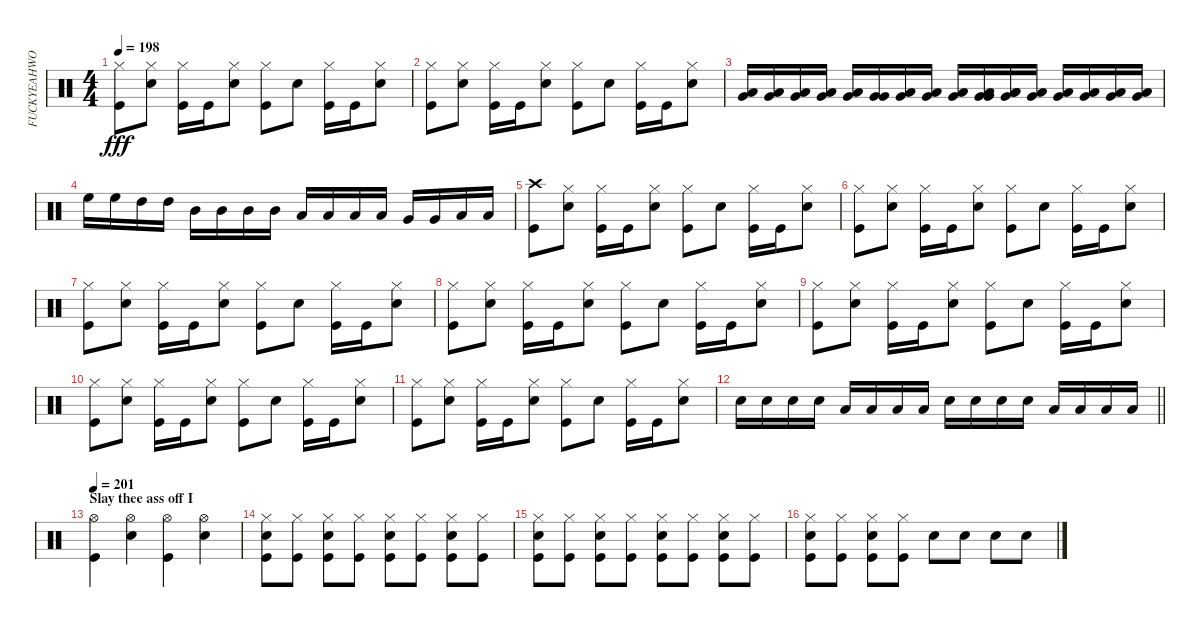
\track ("FUCKYEAHWOOTDAVEMACKINTOSH(Percussion)" "FUCKYEAHWO") {instrument percussion}
\staff {score}
\articulation defaults
\ts (4 4)
\tempo 198
\clef neutral
\ks c
("Kick (hit)" "Hi-Hat (closed)").8{dy fff} ("Snare (hit) 2" "Hi-Hat (closed)").8 ("Kick (hit)" "Hi-Hat (closed)").16 "Kick (hit)".16 ("Snare (hit) 2" "Hi-Hat (closed)").8 ("Kick (hit)" "Hi-Hat (closed)").8 "Snare (hit) 2".8 ("Kick (hit)" "Hi-Hat (closed)").16 "Kick (hit)".16 ("Snare (hit) 2" "Hi-Hat (closed)").8 |
("Kick (hit)" "Hi-Hat (closed)").8 ("Snare (hit) 2" "Hi-Hat (closed)").8 ("Kick (hit)" "Hi-Hat (closed)").16 "Kick (hit)".16 ("Snare (hit) 2" "Hi-Hat (closed)").8 ("Kick (hit)" "Hi-Hat (closed)").8 "Snare (hit) 2".8 ("Kick (hit)" "Hi-Hat (closed)").16 "Kick (hit)".16 ("Snare (hit) 2" "Hi-Hat (closed)").8 |
("Very Low Tom (hit)" "Low Tom (hit)").16 ("Very Low Tom (hit)" "Low Tom (hit)").16 ("Low Floor Tom (hit)" "Very Low Tom (hit)").16 ("Low Floor Tom (hit)" "Very Low Tom (hit)").16 ("Low Tom (hit)" "Very Low Tom (hit)").16 ("Very Low Tom (hit)" "Very Low Tom (hit)").16 ("Low Floor Tom (hit)" "Very Low Tom (hit)").16 ("Low Floor Tom (hit)" "Very Low Tom (hit)").16 ("Very Low Tom (hit)" "Low Tom (hit)").16 ("Very Low Tom (hit)" "Very Low Tom (hit)" "Low Tom (hit)").16 ("Very Low Tom (hit)" "Low Floor Tom (hit)" "Low Tom (hit)").16 ("Low Floor Tom (hit)" "Very Low Tom (hit)").16 ("Low Tom (hit)" "Very Low Tom (hit)").16 ("Low Tom (hit)" "Very Low Tom (hit)").16 ("Very Low Tom (hit)" "Low Floor Tom (hit)").16 ("Very Low Tom (hit)" "Low Floor Tom (hit)").16 |
"High Floor Tom (hit)".16 "High Floor Tom (hit)".16 "High Tom (hit)".16 "High Tom (hit)".16 "Mid Tom (hit)".16 "Mid Tom (hit)".16 "Mid Tom (hit)".16 "Mid Tom (hit)".16 "Low Tom (hit)".16 "Low Tom (hit)".16 "Low Tom (hit)".16 "Low Tom (hit)".16 "Very Low Tom (hit)".16 "Very Low Tom (hit)".16 "Low Floor Tom (hit)".16 "Low Floor Tom (hit)".16 |
("Kick (hit)" "Crash high (hit)").8 ("Snare (hit) 2" "Hi-Hat (closed)").8 ("Kick (hit)" "Hi-Hat (closed)").16 "Kick (hit)".16 ("Snare (hit) 2" "Hi-Hat (closed)").8 ("Kick (hit)" "Hi-Hat (closed)").8 "Snare (hit) 2".8 ("Kick (hit)" "Hi-Hat (closed)").16 "Kick (hit)".16 ("Snare (hit) 2" "Hi-Hat (closed)").8 |
("Kick (hit)" "Hi-Hat (closed)").8 ("Snare (hit) 2" "Hi-Hat (closed)").8 ("Kick (hit)" "Hi-Hat (closed)").16 "Kick (hit)".16 ("Snare (hit) 2" "Hi-Hat (closed)").8 ("Kick (hit)" "Hi-Hat (closed)").8 "Snare (hit) 2".8 ("Kick (hit)" "Hi-Hat (closed)").16 "Kick (hit)".16 ("Snare (hit) 2" "Hi-Hat (closed)").8 |
("Kick (hit)" "Hi-Hat (closed)").8 ("Snare (hit) 2" "Hi-Hat (closed)").8 ("Kick (hit)" "Hi-Hat (closed)").16 "Kick (hit)".16 ("Snare (hit) 2" "Hi-Hat (closed)").8 ("Kick (hit)" "Hi-Hat (closed)").8 "Snare (hit) 2".8 ("Kick (hit)" "Hi-Hat (closed)").16 "Kick (hit)".16 ("Snare (hit) 2" "Hi-Hat (closed)").8 |
("Kick (hit)" "Hi-Hat (closed)").8 ("Snare (hit) 2" "Hi-Hat (closed)").8 ("Kick (hit)" "Hi-Hat (closed)").16 "Kick (hit)".16 ("Snare (hit) 2" "Hi-Hat (closed)").8 ("Kick (hit)" "Hi-Hat (closed)").8 "Snare (hit) 2".8 ("Kick (hit)" "Hi-Hat (closed)").16 "Kick (hit)".16 ("Snare (hit) 2" "Hi-Hat (closed)").8 |
("Kick (hit)" "Hi-Hat (closed)").8 ("Snare (hit) 2" "Hi-Hat (closed)").8 ("Kick (hit)" "Hi-Hat (closed)").16 "Kick (hit)".16 ("Snare (hit) 2" "Hi-Hat (closed)").8 ("Kick (hit)" "Hi-Hat (closed)").8 "Snare (hit) 2".8 ("Kick (hit)" "Hi-Hat (closed)").16 "Kick (hit)".16 ("Snare (hit) 2" "Hi-Hat (closed)").8 |
("Kick (hit)" "Hi-Hat (closed)").8 ("Snare (hit) 2" "Hi-Hat (closed)").8 ("Kick (hit)" "Hi-Hat (closed)").16 "Kick (hit)".16 ("Snare (hit) 2" "Hi-Hat (closed)").8 ("Kick (hit)" "Hi-Hat (closed)").8 "Snare (hit) 2".8 ("Kick (hit)" "Hi-Hat (closed)").16 "Kick (hit)".16 ("Snare (hit) 2" "Hi-Hat (closed)").8 |
("Kick (hit)" "Hi-Hat (closed)").8 ("Snare (hit) 2" "Hi-Hat (closed)").8 ("Kick (hit)" "Hi-Hat (closed)").16 "Kick (hit)".16 ("Snare (hit) 2" "Hi-Hat (closed)").8 ("Kick (hit)" "Hi-Hat (closed)").8 "Snare (hit) 2".8 ("Kick (hit)" "Hi-Hat (closed)").16 "Kick (hit)".16 ("Snare (hit) 2" "Hi-Hat (closed)").8 |
\barLineRight lightlight "Snare (hit) 2".16 "Snare (hit) 2".16 "Snare (hit) 2".16 "Snare (hit) 2".16 "Low Tom (hit)".16 "Low Tom (hit)".16 "Low Tom (hit)".16 "Low Tom (hit)".16 "Snare (hit) 2".16 "Snare (hit) 2".16 "Snare (hit) 2".16 "Snare (hit) 2".16 "Low Tom (hit)".16 "Low Tom (hit)".16 "Low Tom (hit)".16 "Low Tom (hit)".16
|
\section ("" "Slay thee ass off I")
\tempo 201
("Kick (hit)" "Hi-Hat (open)").4 ("Snare (hit) 2" "Hi-Hat (open)").4 ("Kick (hit)" "Hi-Hat (open)").4 ("Snare (hit) 2" "Hi-Hat (open)").4 |
("Kick (hit)" "Snare (hit) 2" "Hi-Hat (closed)").8 ("Kick (hit)" "Hi-Hat (closed)").8 ("Kick (hit)" "Snare (hit) 2" "Hi-Hat (closed)").8 ("Hi-Hat (closed)" "Kick (hit)").8 ("Kick (hit)" "Snare (hit) 2" "Hi-Hat (closed)").8 ("Hi-Hat (closed)" "Kick (hit)").8 ("Kick (hit)" "Snare (hit) 2" "Hi-Hat (closed)").8 ("Kick (hit)" "Hi-Hat (closed)").8 |
("Kick (hit)" "Snare (hit) 2" "Hi-Hat (closed)").8 ("Kick (hit)" "Hi-Hat (closed)").8 ("Kick (hit)" "Snare (hit) 2" "Hi-Hat (closed)").8 ("Hi-Hat (closed)" "Kick (hit)").8 ("Kick (hit)" "Snare (hit) 2" "Hi-Hat (closed)").8 ("Hi-Hat (closed)" "Kick (hit)").8 ("Kick (hit)" "Snare (hit) 2" "Hi-Hat (closed)").8 ("Kick (hit)" "Hi-Hat (closed)").8 |
("Kick (hit)" "Snare (hit) 2" "Hi-Hat (closed)").8 ("Kick (hit)" "Hi-Hat (closed)").8 ("Kick (hit)" "Snare (hit) 2" "Hi-Hat (closed)").8 ("Hi-Hat (closed)" "Kick (hit)").8 "Snare (hit) 2".8 "Snare (hit) 2".8 "Snare (hit) 2".8 "Snare (hit) 2".8
